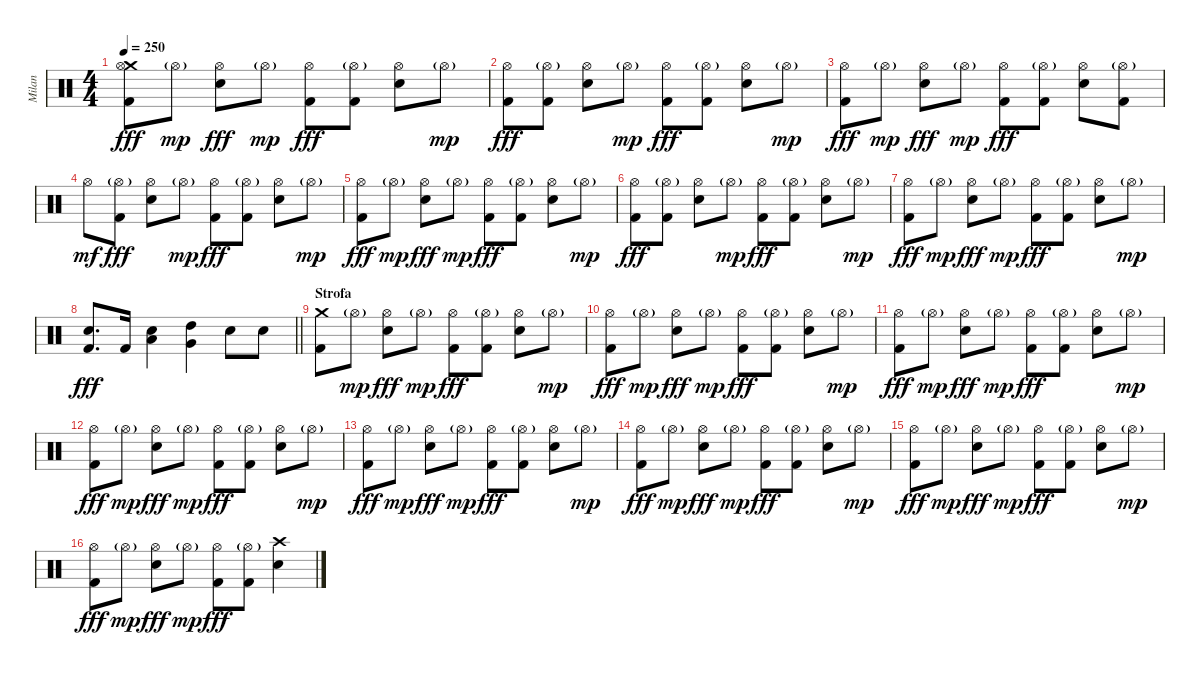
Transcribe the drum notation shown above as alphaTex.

\track ("Milan" "Milan") {instrument percussion}
\staff {score}
\articulation defaults
\ts (4 4)
\tempo 250
\clef neutral
\ks c
("Crash medium (hit)" "Hi-Hat (open)" "Kick (hit) 2").8{dy fff} "Hi-Hat (open)"{g}.8{dy mp} ("Hi-Hat (open)" "Snare (hit) 2").8{dy fff} "Hi-Hat (open)"{g}.8{dy mp} ("Hi-Hat (open)" "Kick (hit) 2").8{dy fff} ("Hi-Hat (open)"{g} "Kick (hit) 2").8 ("Hi-Hat (open)" "Snare (hit) 2").8 "Hi-Hat (open)"{g}.8{dy mp} |
("Hi-Hat (open)" "Kick (hit) 2").8{dy fff} ("Hi-Hat (open)"{g} "Kick (hit) 2").8 ("Hi-Hat (open)" "Snare (hit) 2").8 "Hi-Hat (open)"{g}.8{dy mp} ("Hi-Hat (open)" "Kick (hit) 2").8{dy fff} ("Hi-Hat (open)"{g} "Kick (hit) 2").8 ("Hi-Hat (open)" "Snare (hit) 2").8 "Hi-Hat (open)"{g}.8{dy mp} |
("Hi-Hat (open)" "Kick (hit) 2").8{dy fff} "Hi-Hat (open)"{g}.8{dy mp} ("Hi-Hat (open)" "Snare (hit) 2").8{dy fff} "Hi-Hat (open)"{g}.8{dy mp} ("Hi-Hat (open)" "Kick (hit) 2").8{dy fff} ("Hi-Hat (open)"{g} "Kick (hit) 2").8 ("Hi-Hat (open)" "Snare (hit) 2").8 ("Hi-Hat (open)"{g} "Kick (hit) 2").8 |
"Hi-Hat (open)".8{dy mf} ("Hi-Hat (open)"{g} "Kick (hit) 2").8{dy fff} ("Hi-Hat (open)" "Snare (hit) 2").8 "Hi-Hat (open)"{g}.8{dy mp} ("Hi-Hat (open)" "Kick (hit) 2").8{dy fff} ("Hi-Hat (open)"{g} "Kick (hit) 2").8 ("Hi-Hat (open)" "Snare (hit) 2").8 "Hi-Hat (open)"{g}.8{dy mp} |
("Hi-Hat (open)" "Kick (hit) 2").8{dy fff} "Hi-Hat (open)"{g}.8{dy mp} ("Hi-Hat (open)" "Snare (hit) 2").8{dy fff} "Hi-Hat (open)"{g}.8{dy mp} ("Hi-Hat (open)" "Kick (hit) 2").8{dy fff} ("Hi-Hat (open)"{g} "Kick (hit) 2").8 ("Hi-Hat (open)" "Snare (hit) 2").8 "Hi-Hat (open)"{g}.8{dy mp} |
("Hi-Hat (open)" "Kick (hit) 2").8{dy fff} ("Hi-Hat (open)"{g} "Kick (hit) 2").8 ("Hi-Hat (open)" "Snare (hit) 2").8 "Hi-Hat (open)"{g}.8{dy mp} ("Hi-Hat (open)" "Kick (hit) 2").8{dy fff} ("Hi-Hat (open)"{g} "Kick (hit) 2").8 ("Hi-Hat (open)" "Snare (hit) 2").8 "Hi-Hat (open)"{g}.8{dy mp} |
("Hi-Hat (open)" "Kick (hit) 2").8{dy fff} "Hi-Hat (open)"{g}.8{dy mp} ("Hi-Hat (open)" "Snare (hit) 2").8{dy fff} "Hi-Hat (open)"{g}.8{dy mp} ("Hi-Hat (open)" "Kick (hit) 2").8{dy fff} ("Hi-Hat (open)"{g} "Kick (hit) 2").8 ("Hi-Hat (open)" "Snare (hit) 2").8 "Hi-Hat (open)"{g}.8{dy mp} |
\barLineRight lightlight
("Snare (hit) 2" "Kick (hit) 2").8{d dy fff} "Kick (hit) 2".16 ("Snare (hit) 2" "Low Tom (hit)").4 ("High Tom (hit)" "Very Low Tom (hit)").4 "Snare (hit) 2".8 "Snare (hit) 2".8 |
\section ("" "Strofa")
("Crash medium (hit)" "Kick (hit) 2").8 "Hi-Hat (open)"{g}.8{dy mp} ("Hi-Hat (open)" "Snare (hit) 2").8{dy fff} "Hi-Hat (open)"{g}.8{dy mp} ("Hi-Hat (open)" "Kick (hit) 2").8{dy fff} ("Hi-Hat (open)"{g} "Kick (hit) 2").8 ("Hi-Hat (open)" "Snare (hit) 2").8 "Hi-Hat (open)"{g}.8{dy mp} |
("Hi-Hat (open)" "Kick (hit) 2").8{dy fff} "Hi-Hat (open)"{g}.8{dy mp} ("Hi-Hat (open)" "Snare (hit) 2").8{dy fff} "Hi-Hat (open)"{g}.8{dy mp} ("Hi-Hat (open)" "Kick (hit) 2").8{dy fff} ("Hi-Hat (open)"{g} "Kick (hit) 2").8 ("Hi-Hat (open)" "Snare (hit) 2").8 "Hi-Hat (open)"{g}.8{dy mp} |
("Hi-Hat (open)" "Kick (hit) 2").8{dy fff} "Hi-Hat (open)"{g}.8{dy mp} ("Hi-Hat (open)" "Snare (hit) 2").8{dy fff} "Hi-Hat (open)"{g}.8{dy mp} ("Hi-Hat (open)" "Kick (hit) 2").8{dy fff} ("Hi-Hat (open)"{g} "Kick (hit) 2").8 ("Hi-Hat (open)" "Snare (hit) 2").8 "Hi-Hat (open)"{g}.8{dy mp} |
("Hi-Hat (open)" "Kick (hit) 2").8{dy fff} "Hi-Hat (open)"{g}.8{dy mp} ("Hi-Hat (open)" "Snare (hit) 2").8{dy fff} "Hi-Hat (open)"{g}.8{dy mp} ("Hi-Hat (open)" "Kick (hit) 2").8{dy fff} ("Hi-Hat (open)"{g} "Kick (hit) 2").8 ("Hi-Hat (open)" "Snare (hit) 2").8 "Hi-Hat (open)"{g}.8{dy mp} |
("Hi-Hat (open)" "Kick (hit) 2").8{dy fff} "Hi-Hat (open)"{g}.8{dy mp} ("Hi-Hat (open)" "Snare (hit) 2").8{dy fff} "Hi-Hat (open)"{g}.8{dy mp} ("Hi-Hat (open)" "Kick (hit) 2").8{dy fff} ("Hi-Hat (open)"{g} "Kick (hit) 2").8 ("Hi-Hat (open)" "Snare (hit) 2").8 "Hi-Hat (open)"{g}.8{dy mp} |
("Hi-Hat (open)" "Kick (hit) 2").8{dy fff} "Hi-Hat (open)"{g}.8{dy mp} ("Hi-Hat (open)" "Snare (hit) 2").8{dy fff} "Hi-Hat (open)"{g}.8{dy mp} ("Hi-Hat (open)" "Kick (hit) 2").8{dy fff} ("Hi-Hat (open)"{g} "Kick (hit) 2").8 ("Hi-Hat (open)" "Snare (hit) 2").8 "Hi-Hat (open)"{g}.8{dy mp} |
("Hi-Hat (open)" "Kick (hit) 2").8{dy fff} "Hi-Hat (open)"{g}.8{dy mp} ("Hi-Hat (open)" "Snare (hit) 2").8{dy fff} "Hi-Hat (open)"{g}.8{dy mp} ("Hi-Hat (open)" "Kick (hit) 2").8{dy fff} ("Hi-Hat (open)"{g} "Kick (hit) 2").8 ("Hi-Hat (open)" "Snare (hit) 2").8 "Hi-Hat (open)"{g}.8{dy mp} |
("Hi-Hat (open)" "Kick (hit) 2").8{dy fff} "Hi-Hat (open)"{g}.8{dy mp} ("Hi-Hat (open)" "Snare (hit) 2").8{dy fff} "Hi-Hat (open)"{g}.8{dy mp} ("Hi-Hat (open)" "Kick (hit) 2").8{dy fff} ("Hi-Hat (open)"{g} "Kick (hit) 2").8 ("Crash high (hit)" "Snare (hit) 2").4
